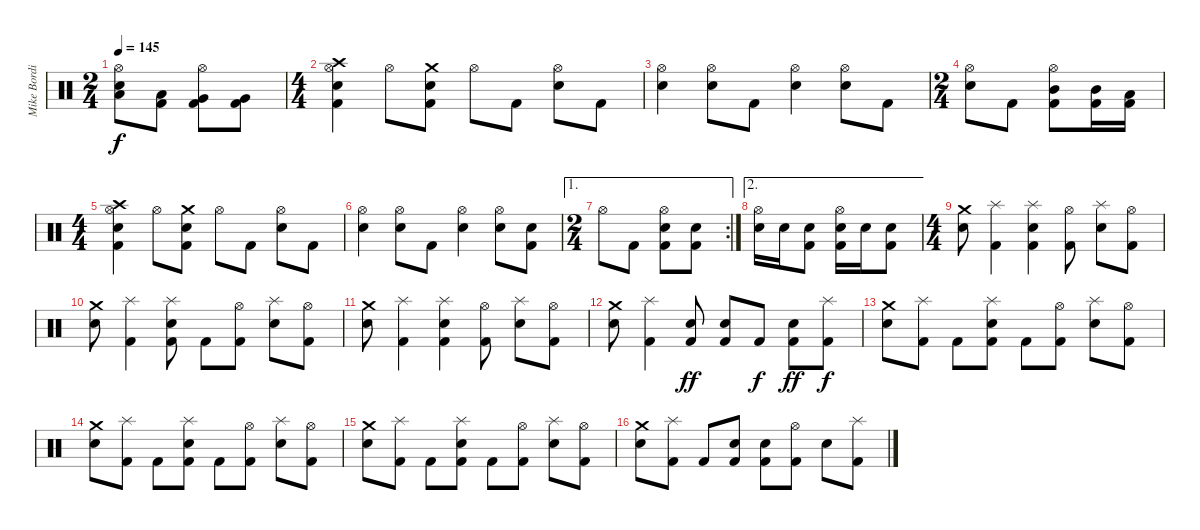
\track ("Mike Bordin" "Mike Bordi") {instrument percussion}
\staff {score}
\articulation defaults
\ts (2 4)
\tempo 145
\clef neutral
\ks c
("Hi-Hat (open)" "Electric Snare (hit)" "Low Tom (hit)").8{dy f} ("Low Tom (hit)" "Kick (hit) 2").8 ("Hi-Hat (open)" "Very Low Tom (hit)" "Kick (hit) 2").8 ("Very Low Tom (hit)" "Kick (hit) 2").8 |
\ts (4 4)
("Crash high (hit)" "Hi-Hat (open)" "Electric Snare (hit)" "Kick (hit) 2").4 "Hi-Hat (open)".8 ("Crash medium (hit)" "Electric Snare (hit)" "Kick (hit) 2").8 "Hi-Hat (open)".8 "Kick (hit) 2".8 ("Hi-Hat (open)" "Electric Snare (hit)").8 "Kick (hit) 2".8 |
("Hi-Hat (open)" "Electric Snare (hit)").4 ("Hi-Hat (open)" "Electric Snare (hit)").8 "Kick (hit) 2".8 ("Hi-Hat (open)" "Electric Snare (hit)").4 ("Hi-Hat (open)" "Electric Snare (hit)").8 "Kick (hit) 2".8 |
\ts (2 4)
("Hi-Hat (open)" "Electric Snare (hit)").8 "Kick (hit) 2".8 ("Hi-Hat (open)" "Mid Tom (hit)" "Kick (hit) 2").8 ("Mid Tom (hit)" "Kick (hit) 2").16 ("Low Tom (hit)" "Kick (hit) 2").16 |
\ts (4 4)
("Crash high (hit)" "Hi-Hat (open)" "Electric Snare (hit)" "Kick (hit) 2").4 "Hi-Hat (open)".8 ("Crash medium (hit)" "Electric Snare (hit)" "Kick (hit) 2").8 "Hi-Hat (open)".8 "Kick (hit) 2".8 ("Hi-Hat (open)" "Electric Snare (hit)").8 "Kick (hit) 2".8 |
("Hi-Hat (open)" "Electric Snare (hit)").4 ("Hi-Hat (open)" "Electric Snare (hit)").8 "Kick (hit) 2".8 ("Hi-Hat (open)" "Electric Snare (hit)").4 ("Hi-Hat (open)" "Electric Snare (hit)").8 ("Electric Snare (hit)" "Kick (hit) 2").8 |
\ae 1
\rc 2
\ts (2 4)
"Hi-Hat (open)".8 "Kick (hit) 2".8 ("Hi-Hat (open)" "Electric Snare (hit)" "Kick (hit) 2").8 ("Electric Snare (hit)" "Kick (hit) 2").8 |
\ae 2
("Hi-Hat (open)" "Electric Snare (hit)").16 "Electric Snare (hit)".16 ("Electric Snare (hit)" "Kick (hit) 2").8 ("Hi-Hat (open)" "Electric Snare (hit)" "Kick (hit) 2").16 "Electric Snare (hit)".16 ("Electric Snare (hit)" "Kick (hit) 2").8 |
\ts (4 4)
("Crash medium (hit)" "Electric Snare (hit)").8 ("Splash (hit)" "Kick (hit) 2").4 ("Splash (hit)" "Electric Snare (hit)" "Kick (hit) 2").4 ("Hi-Hat (open)" "Kick (hit) 2").8 ("Splash (hit)" "Electric Snare (hit)").8 ("Hi-Hat (open)" "Kick (hit) 2").8 |
("Crash medium (hit)" "Electric Snare (hit)").8 ("Splash (hit)" "Kick (hit) 2").4 ("Splash (hit)" "Electric Snare (hit)" "Kick (hit) 2").8 "Kick (hit) 2".8 ("Hi-Hat (open)" "Kick (hit) 2").8 ("Splash (hit)" "Electric Snare (hit)").8 ("Hi-Hat (open)" "Kick (hit) 2").8 |
("Crash medium (hit)" "Electric Snare (hit)").8 ("Splash (hit)" "Kick (hit) 2").4 ("Splash (hit)" "Electric Snare (hit)" "Kick (hit) 2").4 ("Hi-Hat (open)" "Kick (hit) 2").8 ("Splash (hit)" "Electric Snare (hit)").8 ("Hi-Hat (open)" "Kick (hit) 2").8 |
("Crash medium (hit)" "Electric Snare (hit)").8 ("Splash (hit)" "Kick (hit) 2").4 ("Electric Snare (hit)" "Kick (hit) 2").8{dy ff} ("Electric Snare (hit)" "Kick (hit) 2").8 "Kick (hit) 2".8{dy f} ("Electric Snare (hit)" "Kick (hit) 2").8{dy ff} ("Splash (hit)" "Kick (hit) 2").8{dy f} |
("Crash medium (hit)" "Electric Snare (hit)").8 ("Splash (hit)" "Kick (hit) 2").8 "Kick (hit) 2".8 ("Splash (hit)" "Electric Snare (hit)" "Kick (hit) 2").8 "Kick (hit) 2".8 ("Hi-Hat (open)" "Kick (hit) 2").8 ("Splash (hit)" "Electric Snare (hit)").8 ("Hi-Hat (open)" "Kick (hit) 2").8 |
("Crash medium (hit)" "Electric Snare (hit)").8 ("Splash (hit)" "Kick (hit) 2").8 "Kick (hit) 2".8 ("Splash (hit)" "Electric Snare (hit)" "Kick (hit) 2").8 "Kick (hit) 2".8 ("Hi-Hat (open)" "Kick (hit) 2").8 ("Splash (hit)" "Electric Snare (hit)").8 ("Hi-Hat (open)" "Kick (hit) 2").8 |
("Crash medium (hit)" "Electric Snare (hit)").8 ("Splash (hit)" "Kick (hit) 2").8 "Kick (hit) 2".8 ("Splash (hit)" "Electric Snare (hit)" "Kick (hit) 2").8 "Kick (hit) 2".8 ("Hi-Hat (open)" "Kick (hit) 2").8 ("Splash (hit)" "Electric Snare (hit)").8 ("Hi-Hat (open)" "Kick (hit) 2").8 |
("Crash medium (hit)" "Electric Snare (hit)").8 ("Splash (hit)" "Kick (hit) 2").8 "Kick (hit) 2".8 ("Electric Snare (hit)" "Kick (hit) 2").8 ("Electric Snare (hit)" "Kick (hit) 2").8 ("Hi-Hat (open)" "Kick (hit) 2").8 "Electric Snare (hit)".8 ("Splash (hit)" "Kick (hit) 2").8
